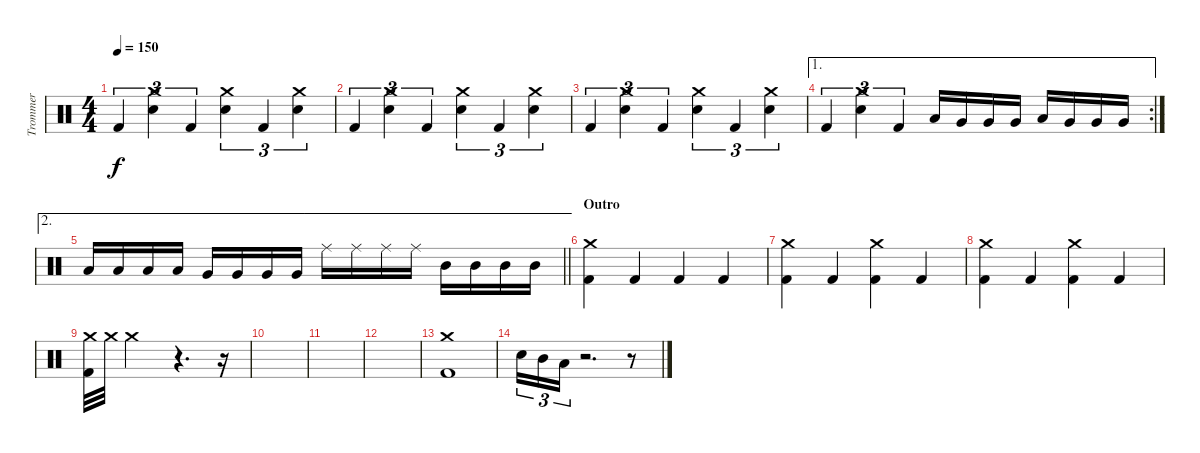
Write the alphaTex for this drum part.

\track ("Trommer" "Trommer") {instrument percussion}
\staff {score}
\articulation defaults
\ts (4 4)
\tempo 150
\clef neutral
\ks c "Kick (hit) 2".4{tu (3 2) dy f}
("Crash medium (hit)" "Snare (hit) 2").4{tu (3 2)} "Kick (hit) 2".4{tu (3 2)} ("Crash medium (hit)" "Snare (hit) 2").4{tu (3 2)} "Kick (hit) 2".4{tu (3 2)} ("Crash medium (hit)" "Snare (hit) 2").4{tu (3 2)} |
"Kick (hit) 2".4{tu (3 2)} ("Crash medium (hit)" "Snare (hit) 2").4{tu (3 2)} "Kick (hit) 2".4{tu (3 2)} ("Crash medium (hit)" "Snare (hit) 2").4{tu (3 2)} "Kick (hit) 2".4{tu (3 2)} ("Crash medium (hit)" "Snare (hit) 2").4{tu (3 2)} |
"Kick (hit) 2".4{tu (3 2)} ("Crash medium (hit)" "Snare (hit) 2").4{tu (3 2)} "Kick (hit) 2".4{tu (3 2)} ("Crash medium (hit)" "Snare (hit) 2").4{tu (3 2)} "Kick (hit) 2".4{tu (3 2)} ("Crash medium (hit)" "Snare (hit) 2").4{tu (3 2)} |
\ae 1
\rc 2 "Kick (hit) 2".4{tu (3 2)}
("Crash medium (hit)" "Snare (hit) 2").4{tu (3 2)} "Kick (hit) 2".4{tu (3 2)} "Low Floor Tom (hit)".16 "Very Low Tom (hit)".16 "Very Low Tom (hit)".16 "Very Low Tom (hit)".16 "Low Floor Tom (hit)".16 "Very Low Tom (hit)".16 "Very Low Tom (hit)".16 "Very Low Tom (hit)".16 |
\ae 2
\barLineRight lightlight "Low Floor Tom (hit)".16 "Low Floor Tom (hit)".16 "Low Floor Tom (hit)".16 "Low Floor Tom (hit)".16 "Very Low Tom (hit)".16 "Very Low Tom (hit)".16 "Very Low Tom (hit)".16 "Very Low Tom (hit)".16 "Ride (middle)".16 "Ride (middle)".16 "Ride (middle)".16 "Ride (middle)".16 "Mid Tom (hit)".16 "Mid Tom (hit)".16 "Mid Tom (hit)".16 "Mid Tom (hit)".16
|
\section ("" "Outro")
("Crash medium (hit)" "Kick (hit) 2").4 "Kick (hit) 2".4 "Kick (hit) 2".4 "Kick (hit) 2".4 |
("Crash medium (hit)" "Kick (hit) 2").4 "Kick (hit) 2".4 ("Crash medium (hit)" "Kick (hit) 2").4 "Kick (hit) 2".4 |
("Crash medium (hit)" "Kick (hit) 2").4 "Kick (hit) 2".4 ("Crash medium (hit)" "Kick (hit) 2").4 "Kick (hit) 2".4 |
("Crash medium (hit)" "Kick (hit) 2").32 "Crash medium (hit)".32 "Crash medium (hit)".2 r.4{d} r.16 |
|
|
|
("Crash medium (hit)" "Kick (hit) 2").1 |
"Snare (hit) 2".16{tu (3 2) volume 16} "Mid Tom (hit)".16{tu (3 2)} "Low Tom (hit)".16{tu (3 2)} r.2{d} r.8
